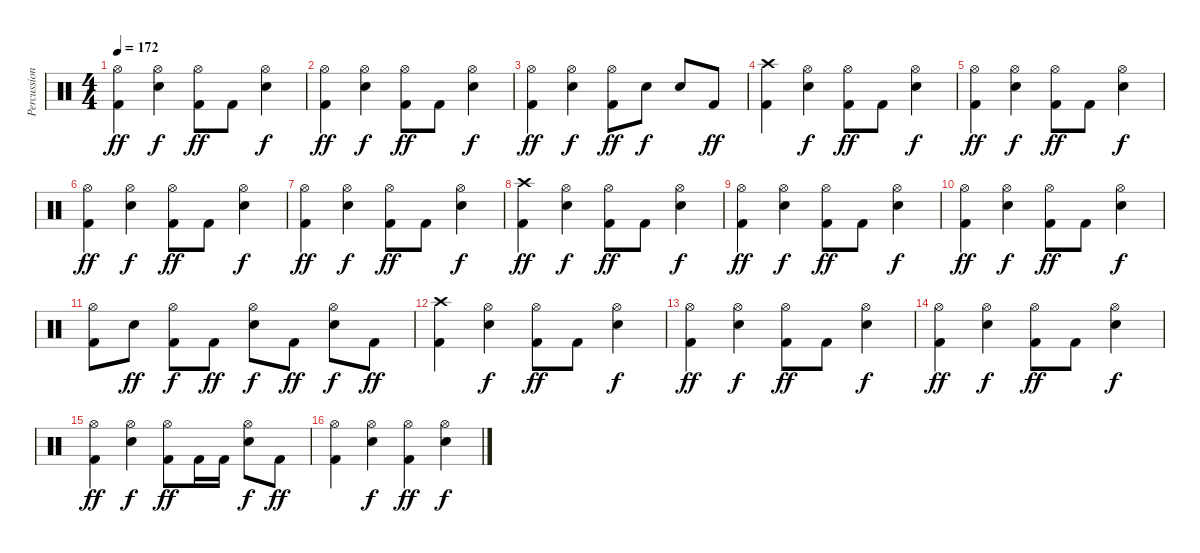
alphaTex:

\track ("Percussion" "Percussion") {instrument percussion}
\staff {score}
\articulation defaults
\ts (4 4)
\tempo 172
\clef neutral
\ks c
("Hi-Hat (open)" "Kick (hit) 2").4{dy ff} ("Hi-Hat (open)" "Snare (hit) 2").4{dy f} ("Hi-Hat (open)" "Kick (hit) 2").8{dy ff} "Kick (hit) 2".8 ("Hi-Hat (open)" "Snare (hit) 2").4{dy f} |
("Hi-Hat (open)" "Kick (hit) 2").4{dy ff} ("Hi-Hat (open)" "Snare (hit) 2").4{dy f} ("Hi-Hat (open)" "Kick (hit) 2").8{dy ff} "Kick (hit) 2".8 ("Hi-Hat (open)" "Snare (hit) 2").4{dy f} |
("Hi-Hat (open)" "Kick (hit) 2").4{dy ff} ("Hi-Hat (open)" "Snare (hit) 2").4{dy f} ("Hi-Hat (open)" "Kick (hit) 2").8{dy ff} "Snare (hit) 2".8{dy f} "Snare (hit) 2".8 "Kick (hit) 2".8{dy ff} |
("Crash high (hit)" "Kick (hit) 2").4 ("Hi-Hat (open)" "Snare (hit) 2").4{dy f} ("Hi-Hat (open)" "Kick (hit) 2").8{dy ff} "Kick (hit) 2".8 ("Hi-Hat (open)" "Snare (hit) 2").4{dy f} |
("Hi-Hat (open)" "Kick (hit) 2").4{dy ff} ("Hi-Hat (open)" "Snare (hit) 2").4{dy f} ("Hi-Hat (open)" "Kick (hit) 2").8{dy ff} "Kick (hit) 2".8 ("Hi-Hat (open)" "Snare (hit) 2").4{dy f} |
("Hi-Hat (open)" "Kick (hit) 2").4{dy ff} ("Hi-Hat (open)" "Snare (hit) 2").4{dy f} ("Hi-Hat (open)" "Kick (hit) 2").8{dy ff} "Kick (hit) 2".8 ("Hi-Hat (open)" "Snare (hit) 2").4{dy f} |
("Hi-Hat (open)" "Kick (hit) 2").4{dy ff} ("Hi-Hat (open)" "Snare (hit) 2").4{dy f} ("Hi-Hat (open)" "Kick (hit) 2").8{dy ff} "Kick (hit) 2".8 ("Hi-Hat (open)" "Snare (hit) 2").4{dy f} |
("Crash high (hit)" "Kick (hit) 2").4{dy ff} ("Hi-Hat (open)" "Snare (hit) 2").4{dy f} ("Hi-Hat (open)" "Kick (hit) 2").8{dy ff} "Kick (hit) 2".8 ("Hi-Hat (open)" "Snare (hit) 2").4{dy f} |
("Hi-Hat (open)" "Kick (hit) 2").4{dy ff} ("Hi-Hat (open)" "Snare (hit) 2").4{dy f} ("Hi-Hat (open)" "Kick (hit) 2").8{dy ff} "Kick (hit) 2".8 ("Hi-Hat (open)" "Snare (hit) 2").4{dy f} |
("Hi-Hat (open)" "Kick (hit) 2").4{dy ff} ("Hi-Hat (open)" "Snare (hit) 2").4{dy f} ("Hi-Hat (open)" "Kick (hit) 2").8{dy ff} "Kick (hit) 2".8 ("Hi-Hat (open)" "Snare (hit) 2").4{dy f} |
("Hi-Hat (open)" "Kick (hit) 2").8 "Snare (hit) 2".8{dy ff} ("Hi-Hat (open)" "Kick (hit) 2").8{dy f} "Kick (hit) 2".8{dy ff} ("Hi-Hat (open)" "Snare (hit) 2").8{dy f} "Kick (hit) 2".8{dy ff} ("Hi-Hat (open)" "Snare (hit) 2").8{dy f} "Kick (hit) 2".8{dy ff} |
("Crash high (hit)" "Kick (hit) 2").4 ("Hi-Hat (open)" "Snare (hit) 2").4{dy f} ("Hi-Hat (open)" "Kick (hit) 2").8{dy ff} "Kick (hit) 2".8 ("Hi-Hat (open)" "Snare (hit) 2").4{dy f} |
("Hi-Hat (open)" "Kick (hit) 2").4{dy ff} ("Hi-Hat (open)" "Snare (hit) 2").4{dy f} ("Hi-Hat (open)" "Kick (hit) 2").8{dy ff} "Kick (hit) 2".8 ("Hi-Hat (open)" "Snare (hit) 2").4{dy f} |
("Hi-Hat (open)" "Kick (hit) 2").4{dy ff} ("Hi-Hat (open)" "Snare (hit) 2").4{dy f} ("Hi-Hat (open)" "Kick (hit) 2").8{dy ff} "Kick (hit) 2".8 ("Hi-Hat (open)" "Snare (hit) 2").4{dy f} |
("Hi-Hat (open)" "Kick (hit) 2").4{dy ff} ("Hi-Hat (open)" "Snare (hit) 2").4{dy f} ("Hi-Hat (open)" "Kick (hit) 2").8{dy ff} "Kick (hit) 2".16 "Kick (hit) 2".16 ("Hi-Hat (open)" "Snare (hit) 2").8{dy f} "Kick (hit) 2".8{dy ff} |
("Hi-Hat (open)" "Kick (hit) 2").4 ("Hi-Hat (open)" "Snare (hit) 2").4{dy f} ("Hi-Hat (open)" "Kick (hit) 2").4{dy ff} ("Hi-Hat (open)" "Snare (hit) 2").4{dy f}
